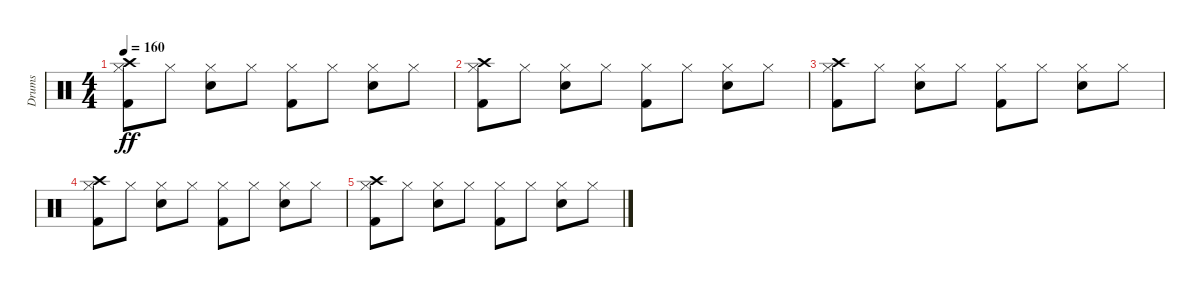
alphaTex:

\track ("Drums" "Drums") {instrument percussion}
\staff {score}
\articulation defaults
\ts (4 4)
\tempo 160
\clef neutral
\ks c
("Kick (hit) 2" "Hi-Hat (closed)" "Crash high (hit)").8{dy ff volume 4 balance 8} "Hi-Hat (closed)".8 ("Snare (hit) 2" "Hi-Hat (closed)").8 "Hi-Hat (closed)".8 ("Kick (hit) 2" "Hi-Hat (closed)").8 "Hi-Hat (closed)".8 ("Snare (hit) 2" "Hi-Hat (closed)").8 "Hi-Hat (closed)".8 |
("Kick (hit) 2" "Hi-Hat (closed)" "Crash high (hit)").8{volume 3 balance 8} "Hi-Hat (closed)".8 ("Snare (hit) 2" "Hi-Hat (closed)").8 "Hi-Hat (closed)".8 ("Kick (hit) 2" "Hi-Hat (closed)").8 "Hi-Hat (closed)".8 ("Snare (hit) 2" "Hi-Hat (closed)").8 "Hi-Hat (closed)".8 |
("Kick (hit) 2" "Hi-Hat (closed)" "Crash high (hit)").8{volume 3 balance 8} "Hi-Hat (closed)".8 ("Snare (hit) 2" "Hi-Hat (closed)").8 "Hi-Hat (closed)".8 ("Kick (hit) 2" "Hi-Hat (closed)").8 "Hi-Hat (closed)".8 ("Snare (hit) 2" "Hi-Hat (closed)").8 "Hi-Hat (closed)".8 |
("Kick (hit) 2" "Hi-Hat (closed)" "Crash high (hit)").8{volume 2 balance 8} "Hi-Hat (closed)".8 ("Snare (hit) 2" "Hi-Hat (closed)").8 "Hi-Hat (closed)".8 ("Kick (hit) 2" "Hi-Hat (closed)").8 "Hi-Hat (closed)".8 ("Snare (hit) 2" "Hi-Hat (closed)").8 "Hi-Hat (closed)".8 |
("Kick (hit) 2" "Hi-Hat (closed)" "Crash high (hit)").8{volume 2 balance 8} "Hi-Hat (closed)".8 ("Snare (hit) 2" "Hi-Hat (closed)").8 "Hi-Hat (closed)".8 ("Kick (hit) 2" "Hi-Hat (closed)").8 "Hi-Hat (closed)".8 ("Snare (hit) 2" "Hi-Hat (closed)").8 "Hi-Hat (closed)".8
